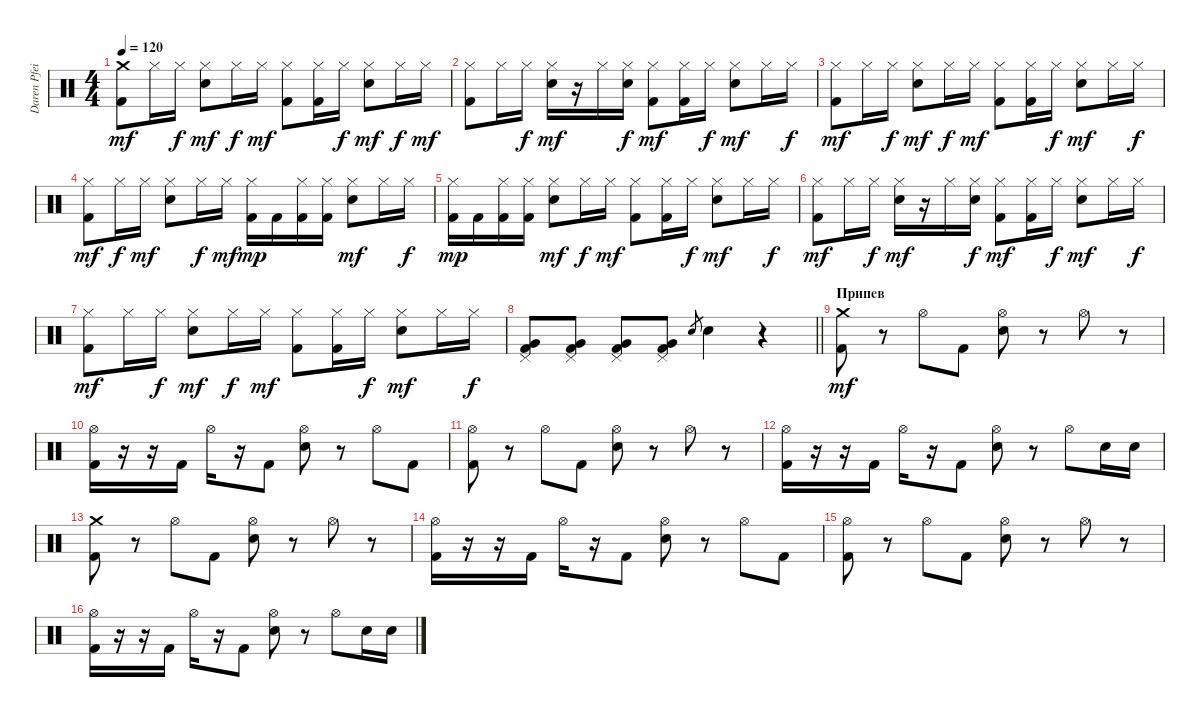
\track ("Daren Pfeifer" "Daren Pfei") {instrument percussion}
\staff {score}
\articulation defaults
\ts (4 4)
\tempo 120
\clef neutral
\ks c
("Crash medium (hit)" "Kick (hit) 2").8{dy mf} "Hi-Hat (closed)".16 "Hi-Hat (closed)".16{dy f} ("Hi-Hat (closed)" "Snare (hit) 2").8{dy mf} "Hi-Hat (closed)".16{dy f} "Hi-Hat (closed)".16{dy mf} ("Hi-Hat (closed)" "Kick (hit) 2").8 ("Hi-Hat (closed)" "Kick (hit) 2").16 "Hi-Hat (closed)".16{dy f} ("Hi-Hat (closed)" "Snare (hit) 2").8{dy mf} "Hi-Hat (closed)".16{dy f} "Hi-Hat (closed)".16{dy mf} |
("Hi-Hat (closed)" "Kick (hit) 2").8 "Hi-Hat (closed)".16 "Hi-Hat (closed)".16{dy f} ("Hi-Hat (closed)" "Snare (hit) 2").16{dy mf} r.16 "Hi-Hat (closed)".16 ("Hi-Hat (closed)" "Snare (hit) 2").16{dy f} ("Hi-Hat (closed)" "Kick (hit) 2").8{dy mf} ("Hi-Hat (closed)" "Kick (hit) 2").16 "Hi-Hat (closed)".16{dy f} ("Hi-Hat (closed)" "Snare (hit) 2").8{dy mf} "Hi-Hat (closed)".16 "Hi-Hat (closed)".16{dy f} |
("Hi-Hat (closed)" "Kick (hit) 2").8{dy mf} "Hi-Hat (closed)".16 "Hi-Hat (closed)".16{dy f} ("Hi-Hat (closed)" "Snare (hit) 2").8{dy mf} "Hi-Hat (closed)".16{dy f} "Hi-Hat (closed)".16{dy mf} ("Hi-Hat (closed)" "Kick (hit) 2").8 ("Hi-Hat (closed)" "Kick (hit) 2").16 "Hi-Hat (closed)".16{dy f} ("Hi-Hat (closed)" "Snare (hit) 2").8{dy mf} "Hi-Hat (closed)".16 "Hi-Hat (closed)".16{dy f} |
("Hi-Hat (closed)" "Kick (hit) 2").8{dy mf} "Hi-Hat (closed)".16{dy f} "Hi-Hat (closed)".16{dy mf} ("Hi-Hat (closed)" "Snare (hit) 2").8 "Hi-Hat (closed)".16{dy f} "Hi-Hat (closed)".16{dy mf} ("Hi-Hat (closed)" "Kick (hit) 2").16{dy mp} "Kick (hit) 2".16 ("Hi-Hat (closed)" "Kick (hit) 2").16 ("Hi-Hat (closed)" "Kick (hit) 2").16 ("Hi-Hat (closed)" "Snare (hit) 2").8{dy mf} "Hi-Hat (closed)".16 "Hi-Hat (closed)".16{dy f} |
("Hi-Hat (closed)" "Kick (hit) 2").16{dy mp} "Kick (hit) 2".16 ("Hi-Hat (closed)" "Kick (hit) 2").16 ("Hi-Hat (closed)" "Kick (hit) 2").16 ("Hi-Hat (closed)" "Snare (hit) 2").8{dy mf} "Hi-Hat (closed)".16{dy f} "Hi-Hat (closed)".16{dy mf} ("Hi-Hat (closed)" "Kick (hit) 2").8 ("Hi-Hat (closed)" "Kick (hit) 2").16 "Hi-Hat (closed)".16{dy f} ("Hi-Hat (closed)" "Snare (hit) 2").8{dy mf} "Hi-Hat (closed)".16 "Hi-Hat (closed)".16{dy f} |
("Hi-Hat (closed)" "Kick (hit) 2").8{dy mf} "Hi-Hat (closed)".16 "Hi-Hat (closed)".16{dy f} ("Hi-Hat (closed)" "Snare (hit) 2").16{dy mf} r.16 "Hi-Hat (closed)".16 ("Hi-Hat (closed)" "Snare (hit) 2").16{dy f} ("Hi-Hat (closed)" "Kick (hit) 2").8{dy mf} ("Hi-Hat (closed)" "Kick (hit) 2").16 "Hi-Hat (closed)".16{dy f} ("Hi-Hat (closed)" "Snare (hit) 2").8{dy mf} "Hi-Hat (closed)".16 "Hi-Hat (closed)".16{dy f} |
("Hi-Hat (closed)" "Kick (hit) 2").8{dy mf} "Hi-Hat (closed)".16 "Hi-Hat (closed)".16{dy f} ("Hi-Hat (closed)" "Snare (hit) 2").8{dy mf} "Hi-Hat (closed)".16{dy f} "Hi-Hat (closed)".16{dy mf} ("Hi-Hat (closed)" "Kick (hit) 2").8 ("Hi-Hat (closed)" "Kick (hit) 2").16 "Hi-Hat (closed)".16{dy f} ("Hi-Hat (closed)" "Snare (hit) 2").8{dy mf} "Hi-Hat (closed)".16 "Hi-Hat (closed)".16{dy f} |
\barLineRight lightlight
("Pedal Hi-Hat (hit)" "Very Low Tom (hit)" "Kick (hit) 2").8 ("Pedal Hi-Hat (hit)" "Very Low Tom (hit)" "Kick (hit) 2").8 ("Pedal Hi-Hat (hit)" "Very Low Tom (hit)" "Kick (hit) 2").8 ("Pedal Hi-Hat (hit)" "Very Low Tom (hit)" "Kick (hit) 2").8 "Snare (hit) 2".8{gr} "Snare (hit) 2".4 r.4 |
\section ("" "Припев")
("Crash medium (hit)" "Kick (hit) 2").8{dy mf} r.8 "Hi-Hat (open)".8 "Kick (hit) 2".8 ("Hi-Hat (open)" "Snare (hit) 2").8 r.8 "Hi-Hat (open)".8 r.8 |
("Hi-Hat (open)" "Kick (hit) 2").16 r.16 r.16 "Kick (hit) 2".16 "Hi-Hat (open)".16 r.16 "Kick (hit) 2".8 ("Hi-Hat (open)" "Snare (hit) 2").8 r.8 "Hi-Hat (open)".8 "Kick (hit) 2".8 |
("Hi-Hat (open)" "Kick (hit) 2").8 r.8 "Hi-Hat (open)".8 "Kick (hit) 2".8 ("Hi-Hat (open)" "Snare (hit) 2").8 r.8 "Hi-Hat (open)".8 r.8 |
("Hi-Hat (open)" "Kick (hit) 2").16 r.16 r.16 "Kick (hit) 2".16 "Hi-Hat (open)".16 r.16 "Kick (hit) 2".8 ("Hi-Hat (open)" "Snare (hit) 2").8 r.8 "Hi-Hat (open)".8 "Snare (hit) 2".16 "Snare (hit) 2".16 |
("Crash medium (hit)" "Kick (hit) 2").8 r.8 "Hi-Hat (open)".8 "Kick (hit) 2".8 ("Hi-Hat (open)" "Snare (hit) 2").8 r.8 "Hi-Hat (open)".8 r.8 |
("Hi-Hat (open)" "Kick (hit) 2").16 r.16 r.16 "Kick (hit) 2".16 "Hi-Hat (open)".16 r.16 "Kick (hit) 2".8 ("Hi-Hat (open)" "Snare (hit) 2").8 r.8 "Hi-Hat (open)".8 "Kick (hit) 2".8 |
("Hi-Hat (open)" "Kick (hit) 2").8 r.8 "Hi-Hat (open)".8 "Kick (hit) 2".8 ("Hi-Hat (open)" "Snare (hit) 2").8 r.8 "Hi-Hat (open)".8 r.8 |
("Hi-Hat (open)" "Kick (hit) 2").16 r.16 r.16 "Kick (hit) 2".16 "Hi-Hat (open)".16 r.16 "Kick (hit) 2".8 ("Hi-Hat (open)" "Snare (hit) 2").8 r.8 "Hi-Hat (open)".8 "Snare (hit) 2".16 "Snare (hit) 2".16
